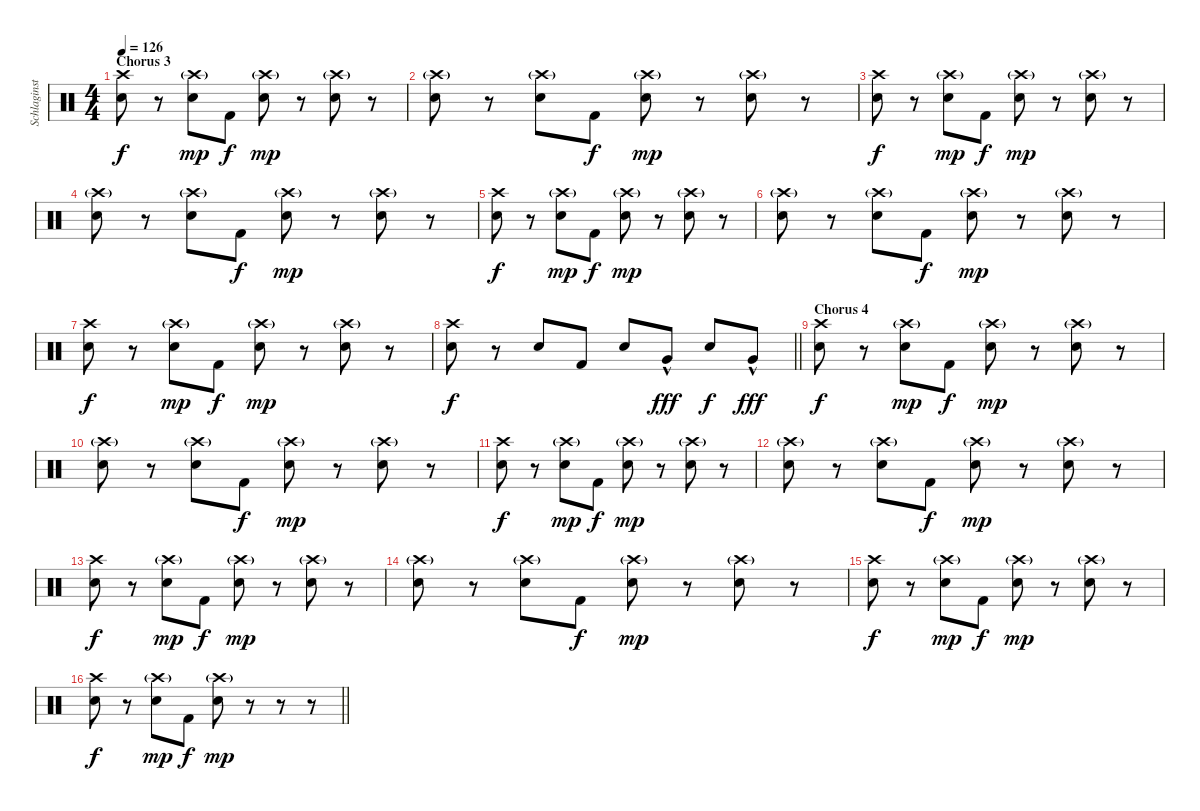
\track ("Schlaginstrumente - Auswahl" "Schlaginst") {instrument percussion}
\staff {score}
\articulation defaults
\ts (4 4)
\section ("" "Chorus 3")
\tempo 126
\clef neutral
\ks c
("Crash high (hit)" "Electric Snare (hit)").8{dy f} r.8 ("Crash high (hit)"{g} "Electric Snare (hit)").8{dy mp} "Kick (hit) 2".8{dy f} ("Crash high (hit)"{g} "Electric Snare (hit)").8{dy mp} r.8 ("Crash high (hit)"{g} "Electric Snare (hit)").8 r.8 |
("Crash high (hit)"{g} "Electric Snare (hit)").8 r.8 ("Crash high (hit)"{g} "Electric Snare (hit)").8 "Kick (hit) 2".8{dy f} ("Crash high (hit)"{g} "Electric Snare (hit)").8{dy mp} r.8 ("Crash high (hit)"{g} "Electric Snare (hit)").8 r.8 |
("Crash high (hit)" "Electric Snare (hit)").8{dy f} r.8 ("Crash high (hit)"{g} "Electric Snare (hit)").8{dy mp} "Kick (hit) 2".8{dy f} ("Crash high (hit)"{g} "Electric Snare (hit)").8{dy mp} r.8 ("Crash high (hit)"{g} "Electric Snare (hit)").8 r.8 |
("Crash high (hit)"{g} "Electric Snare (hit)").8 r.8 ("Crash high (hit)"{g} "Electric Snare (hit)").8 "Kick (hit) 2".8{dy f} ("Crash high (hit)"{g} "Electric Snare (hit)").8{dy mp} r.8 ("Crash high (hit)"{g} "Electric Snare (hit)").8 r.8 |
("Crash high (hit)" "Electric Snare (hit)").8{dy f} r.8 ("Crash high (hit)"{g} "Electric Snare (hit)").8{dy mp} "Kick (hit) 2".8{dy f} ("Crash high (hit)"{g} "Electric Snare (hit)").8{dy mp} r.8 ("Crash high (hit)"{g} "Electric Snare (hit)").8 r.8 |
("Crash high (hit)"{g} "Electric Snare (hit)").8 r.8 ("Crash high (hit)"{g} "Electric Snare (hit)").8 "Kick (hit) 2".8{dy f} ("Crash high (hit)"{g} "Electric Snare (hit)").8{dy mp} r.8 ("Crash high (hit)"{g} "Electric Snare (hit)").8 r.8 |
("Crash high (hit)" "Electric Snare (hit)").8{dy f} r.8 ("Crash high (hit)"{g} "Electric Snare (hit)").8{dy mp} "Kick (hit) 2".8{dy f} ("Crash high (hit)"{g} "Electric Snare (hit)").8{dy mp} r.8 ("Crash high (hit)"{g} "Electric Snare (hit)").8 r.8 |
\barLineRight lightlight
("Crash high (hit)" "Electric Snare (hit)").8{dy f} r.8 "Electric Snare (hit)".8 "Kick (hit) 2".8 "Electric Snare (hit)".8 "Very Low Tom (hit)"{hac}.8{dy fff} "Electric Snare (hit)".8{dy f} "Very Low Tom (hit)"{hac}.8{dy fff} |
\section ("" "Chorus 4")
("Crash high (hit)" "Electric Snare (hit)").8{dy f} r.8 ("Crash high (hit)"{g} "Electric Snare (hit)").8{dy mp} "Kick (hit) 2".8{dy f} ("Crash high (hit)"{g} "Electric Snare (hit)").8{dy mp} r.8 ("Crash high (hit)"{g} "Electric Snare (hit)").8 r.8 |
("Crash high (hit)"{g} "Electric Snare (hit)").8 r.8 ("Crash high (hit)"{g} "Electric Snare (hit)").8 "Kick (hit) 2".8{dy f} ("Crash high (hit)"{g} "Electric Snare (hit)").8{dy mp} r.8 ("Crash high (hit)"{g} "Electric Snare (hit)").8 r.8 |
("Crash high (hit)" "Electric Snare (hit)").8{dy f} r.8 ("Crash high (hit)"{g} "Electric Snare (hit)").8{dy mp} "Kick (hit) 2".8{dy f} ("Crash high (hit)"{g} "Electric Snare (hit)").8{dy mp} r.8 ("Crash high (hit)"{g} "Electric Snare (hit)").8 r.8 |
("Crash high (hit)"{g} "Electric Snare (hit)").8 r.8 ("Crash high (hit)"{g} "Electric Snare (hit)").8 "Kick (hit) 2".8{dy f} ("Crash high (hit)"{g} "Electric Snare (hit)").8{dy mp} r.8 ("Crash high (hit)"{g} "Electric Snare (hit)").8 r.8 |
("Crash high (hit)" "Electric Snare (hit)").8{dy f} r.8 ("Crash high (hit)"{g} "Electric Snare (hit)").8{dy mp} "Kick (hit) 2".8{dy f} ("Crash high (hit)"{g} "Electric Snare (hit)").8{dy mp} r.8 ("Crash high (hit)"{g} "Electric Snare (hit)").8 r.8 |
("Crash high (hit)"{g} "Electric Snare (hit)").8 r.8 ("Crash high (hit)"{g} "Electric Snare (hit)").8 "Kick (hit) 2".8{dy f} ("Crash high (hit)"{g} "Electric Snare (hit)").8{dy mp} r.8 ("Crash high (hit)"{g} "Electric Snare (hit)").8 r.8 |
("Crash high (hit)" "Electric Snare (hit)").8{dy f} r.8 ("Crash high (hit)"{g} "Electric Snare (hit)").8{dy mp} "Kick (hit) 2".8{dy f} ("Crash high (hit)"{g} "Electric Snare (hit)").8{dy mp} r.8 ("Crash high (hit)"{g} "Electric Snare (hit)").8 r.8 |
\barLineRight lightlight
("Crash high (hit)" "Electric Snare (hit)").8{dy f} r.8 ("Crash high (hit)"{g} "Electric Snare (hit)").8{dy mp} "Kick (hit) 2".8{dy f} ("Crash high (hit)"{g} "Electric Snare (hit)").8{dy mp} r.8 r.8 r.8
